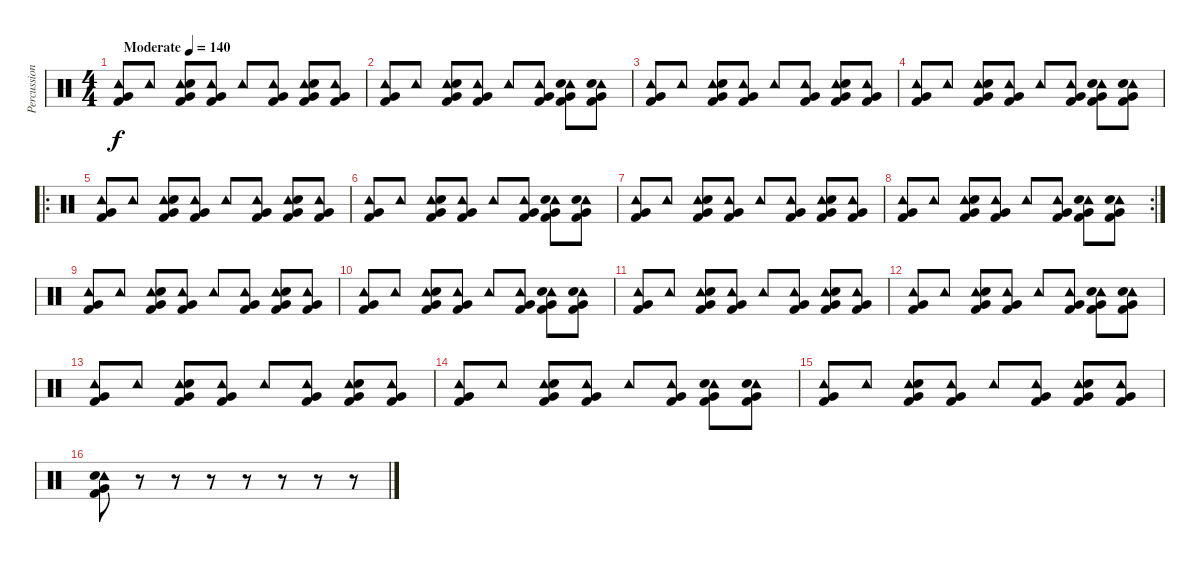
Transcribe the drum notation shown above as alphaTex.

\track ("Percussion" "Percussion") {instrument percussion}
\staff {score}
\articulation defaults
\ts (4 4)
\tempo (140 "Moderate")
\clef neutral
\ks c
("Tambourine (hit)" "Very Low Tom (hit)" "Kick (hit) 2").8{dy f} "Tambourine (hit)".8 ("Tambourine (hit)" "Very Low Tom (hit)" "Kick (hit) 2" "Snare (hit) 2").8 ("Tambourine (hit)" "Very Low Tom (hit)" "Kick (hit) 2").8 "Tambourine (hit)".8 ("Tambourine (hit)" "Kick (hit) 2" "Very Low Tom (hit)").8 ("Tambourine (hit)" "Snare (hit) 2" "Very Low Tom (hit)" "Kick (hit) 2").8 ("Tambourine (hit)" "Kick (hit) 2" "Very Low Tom (hit)").8 |
("Tambourine (hit)" "Very Low Tom (hit)" "Kick (hit) 2").8 "Tambourine (hit)".8 ("Tambourine (hit)" "Very Low Tom (hit)" "Kick (hit) 2" "Snare (hit) 2").8 ("Tambourine (hit)" "Very Low Tom (hit)" "Kick (hit) 2").8 "Tambourine (hit)".8 ("Tambourine (hit)" "Kick (hit) 2" "Very Low Tom (hit)").8 ("Tambourine (hit)" "Snare (hit) 2" "Very Low Tom (hit)" "Kick (hit) 2").8 ("Tambourine (hit)" "Snare (hit) 2" "Very Low Tom (hit)" "Kick (hit) 2").8 |
("Tambourine (hit)" "Very Low Tom (hit)" "Kick (hit) 2").8 "Tambourine (hit)".8 ("Tambourine (hit)" "Very Low Tom (hit)" "Kick (hit) 2" "Snare (hit) 2").8 ("Tambourine (hit)" "Very Low Tom (hit)" "Kick (hit) 2").8 "Tambourine (hit)".8 ("Tambourine (hit)" "Kick (hit) 2" "Very Low Tom (hit)").8 ("Tambourine (hit)" "Snare (hit) 2" "Very Low Tom (hit)" "Kick (hit) 2").8 ("Tambourine (hit)" "Kick (hit) 2" "Very Low Tom (hit)").8 |
("Tambourine (hit)" "Very Low Tom (hit)" "Kick (hit) 2").8 "Tambourine (hit)".8 ("Tambourine (hit)" "Very Low Tom (hit)" "Kick (hit) 2" "Snare (hit) 2").8 ("Tambourine (hit)" "Very Low Tom (hit)" "Kick (hit) 2").8 "Tambourine (hit)".8 ("Tambourine (hit)" "Kick (hit) 2" "Very Low Tom (hit)").8 ("Tambourine (hit)" "Snare (hit) 2" "Very Low Tom (hit)" "Kick (hit) 2").8 ("Tambourine (hit)" "Snare (hit) 2" "Very Low Tom (hit)" "Kick (hit) 2").8 |
\ro
("Tambourine (hit)" "Very Low Tom (hit)" "Kick (hit) 2").8 "Tambourine (hit)".8 ("Tambourine (hit)" "Very Low Tom (hit)" "Kick (hit) 2" "Snare (hit) 2").8 ("Tambourine (hit)" "Very Low Tom (hit)" "Kick (hit) 2").8 "Tambourine (hit)".8 ("Tambourine (hit)" "Kick (hit) 2" "Very Low Tom (hit)").8 ("Tambourine (hit)" "Snare (hit) 2" "Very Low Tom (hit)" "Kick (hit) 2").8 ("Tambourine (hit)" "Kick (hit) 2" "Very Low Tom (hit)").8 |
("Tambourine (hit)" "Very Low Tom (hit)" "Kick (hit) 2").8 "Tambourine (hit)".8 ("Tambourine (hit)" "Very Low Tom (hit)" "Kick (hit) 2" "Snare (hit) 2").8 ("Tambourine (hit)" "Very Low Tom (hit)" "Kick (hit) 2").8 "Tambourine (hit)".8 ("Tambourine (hit)" "Kick (hit) 2" "Very Low Tom (hit)").8 ("Tambourine (hit)" "Snare (hit) 2" "Very Low Tom (hit)" "Kick (hit) 2").8 ("Tambourine (hit)" "Snare (hit) 2" "Very Low Tom (hit)" "Kick (hit) 2").8 |
("Tambourine (hit)" "Very Low Tom (hit)" "Kick (hit) 2").8 "Tambourine (hit)".8 ("Tambourine (hit)" "Very Low Tom (hit)" "Kick (hit) 2" "Snare (hit) 2").8 ("Tambourine (hit)" "Very Low Tom (hit)" "Kick (hit) 2").8 "Tambourine (hit)".8 ("Tambourine (hit)" "Kick (hit) 2" "Very Low Tom (hit)").8 ("Tambourine (hit)" "Snare (hit) 2" "Very Low Tom (hit)" "Kick (hit) 2").8 ("Tambourine (hit)" "Kick (hit) 2" "Very Low Tom (hit)").8 |
\rc 2
("Tambourine (hit)" "Very Low Tom (hit)" "Kick (hit) 2").8 "Tambourine (hit)".8 ("Tambourine (hit)" "Very Low Tom (hit)" "Kick (hit) 2" "Snare (hit) 2").8 ("Tambourine (hit)" "Very Low Tom (hit)" "Kick (hit) 2").8 "Tambourine (hit)".8 ("Tambourine (hit)" "Kick (hit) 2" "Very Low Tom (hit)").8 ("Tambourine (hit)" "Snare (hit) 2" "Very Low Tom (hit)" "Kick (hit) 2").8 ("Tambourine (hit)" "Snare (hit) 2" "Very Low Tom (hit)" "Kick (hit) 2").8 |
("Tambourine (hit)" "Very Low Tom (hit)" "Kick (hit) 2").8 "Tambourine (hit)".8 ("Tambourine (hit)" "Very Low Tom (hit)" "Kick (hit) 2" "Snare (hit) 2").8 ("Tambourine (hit)" "Very Low Tom (hit)" "Kick (hit) 2").8 "Tambourine (hit)".8 ("Tambourine (hit)" "Kick (hit) 2" "Very Low Tom (hit)").8 ("Tambourine (hit)" "Snare (hit) 2" "Very Low Tom (hit)" "Kick (hit) 2").8 ("Tambourine (hit)" "Kick (hit) 2" "Very Low Tom (hit)").8 |
("Tambourine (hit)" "Very Low Tom (hit)" "Kick (hit) 2").8 "Tambourine (hit)".8 ("Tambourine (hit)" "Very Low Tom (hit)" "Kick (hit) 2" "Snare (hit) 2").8 ("Tambourine (hit)" "Very Low Tom (hit)" "Kick (hit) 2").8 "Tambourine (hit)".8 ("Tambourine (hit)" "Kick (hit) 2" "Very Low Tom (hit)").8 ("Tambourine (hit)" "Snare (hit) 2" "Very Low Tom (hit)" "Kick (hit) 2").8 ("Tambourine (hit)" "Snare (hit) 2" "Very Low Tom (hit)" "Kick (hit) 2").8 |
("Tambourine (hit)" "Very Low Tom (hit)" "Kick (hit) 2").8 "Tambourine (hit)".8 ("Tambourine (hit)" "Very Low Tom (hit)" "Kick (hit) 2" "Snare (hit) 2").8 ("Tambourine (hit)" "Very Low Tom (hit)" "Kick (hit) 2").8 "Tambourine (hit)".8 ("Tambourine (hit)" "Kick (hit) 2" "Very Low Tom (hit)").8 ("Tambourine (hit)" "Snare (hit) 2" "Very Low Tom (hit)" "Kick (hit) 2").8 ("Tambourine (hit)" "Kick (hit) 2" "Very Low Tom (hit)").8 |
("Tambourine (hit)" "Very Low Tom (hit)" "Kick (hit) 2").8 "Tambourine (hit)".8 ("Tambourine (hit)" "Very Low Tom (hit)" "Kick (hit) 2" "Snare (hit) 2").8 ("Tambourine (hit)" "Very Low Tom (hit)" "Kick (hit) 2").8 "Tambourine (hit)".8 ("Tambourine (hit)" "Kick (hit) 2" "Very Low Tom (hit)").8 ("Tambourine (hit)" "Snare (hit) 2" "Very Low Tom (hit)" "Kick (hit) 2").8 ("Tambourine (hit)" "Snare (hit) 2" "Very Low Tom (hit)" "Kick (hit) 2").8 |
("Tambourine (hit)" "Very Low Tom (hit)" "Kick (hit) 2").8 "Tambourine (hit)".8 ("Tambourine (hit)" "Very Low Tom (hit)" "Kick (hit) 2" "Snare (hit) 2").8 ("Tambourine (hit)" "Very Low Tom (hit)" "Kick (hit) 2").8 "Tambourine (hit)".8 ("Tambourine (hit)" "Kick (hit) 2" "Very Low Tom (hit)").8 ("Tambourine (hit)" "Snare (hit) 2" "Very Low Tom (hit)" "Kick (hit) 2").8 ("Tambourine (hit)" "Kick (hit) 2" "Very Low Tom (hit)").8 |
("Tambourine (hit)" "Very Low Tom (hit)" "Kick (hit) 2").8 "Tambourine (hit)".8 ("Tambourine (hit)" "Very Low Tom (hit)" "Kick (hit) 2" "Snare (hit) 2").8 ("Tambourine (hit)" "Very Low Tom (hit)" "Kick (hit) 2").8 "Tambourine (hit)".8 ("Tambourine (hit)" "Kick (hit) 2" "Very Low Tom (hit)").8 ("Tambourine (hit)" "Snare (hit) 2" "Very Low Tom (hit)" "Kick (hit) 2").8 ("Tambourine (hit)" "Snare (hit) 2" "Very Low Tom (hit)" "Kick (hit) 2").8 |
("Tambourine (hit)" "Very Low Tom (hit)" "Kick (hit) 2").8 "Tambourine (hit)".8 ("Tambourine (hit)" "Very Low Tom (hit)" "Kick (hit) 2" "Snare (hit) 2").8 ("Tambourine (hit)" "Very Low Tom (hit)" "Kick (hit) 2").8 "Tambourine (hit)".8 ("Tambourine (hit)" "Kick (hit) 2" "Very Low Tom (hit)").8 ("Tambourine (hit)" "Snare (hit) 2" "Very Low Tom (hit)" "Kick (hit) 2").8 ("Tambourine (hit)" "Kick (hit) 2" "Very Low Tom (hit)").8 |
("Tambourine (hit)" "Very Low Tom (hit)" "Kick (hit) 2" "Snare (hit) 2").8 r.8 r.8 r.8 r.8 r.8 r.8 r.8
